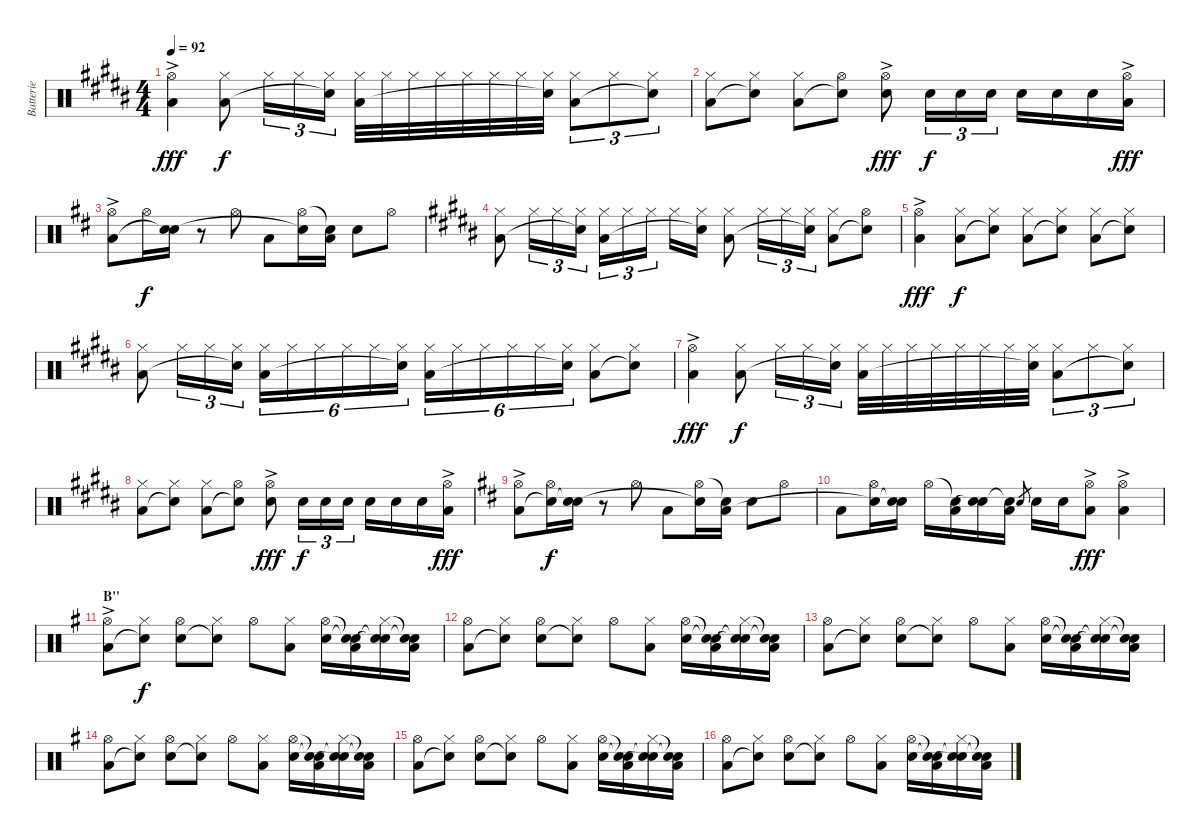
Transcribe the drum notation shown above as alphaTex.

\track ("Batterie" "Batterie") {instrument percussion}
\staff {score}
\articulation defaults
\ts (4 4)
\tempo 92
\clef neutral
\ks b
("Hi-Hat (open)"{ac} "Low Floor Tom (hit)").4{dy fff} ("Hi-Hat (closed)" "Low Floor Tom (hit)").8{dy f} "Hi-Hat (closed)".16{tu (3 2)} "Hi-Hat (closed)".16{tu (3 2)} ("Hi-Hat (closed)" "Snare (hit)"{t}).16{tu (3 2)} ("Hi-Hat (closed)" "Low Floor Tom (hit)").32 "Hi-Hat (closed)".32 "Hi-Hat (closed)".32 "Hi-Hat (closed)".32 "Hi-Hat (closed)".32 "Hi-Hat (closed)".32 "Hi-Hat (closed)".32 ("Hi-Hat (closed)" "Snare (hit)"{t}).32 ("Hi-Hat (closed)" "Low Floor Tom (hit)").8{tu (3 2)} "Hi-Hat (closed)".8{tu (3 2)} ("Hi-Hat (closed)" "Snare (hit)"{t}).8{tu (3 2)} |
("Hi-Hat (closed)" "Low Floor Tom (hit)").8 ("Hi-Hat (closed)" "Snare (hit)"{t}).8 ("Hi-Hat (closed)" "Low Floor Tom (hit)").8 ("Hi-Hat (open)" "Snare (hit)"{t}).8 ("Hi-Hat (open)"{ac} "Electric Snare (hit)").8{dy fff} "Electric Snare (hit)".16{tu (3 2) dy f} "Electric Snare (hit)".16{tu (3 2)} "Electric Snare (hit)".16{tu (3 2)} "Electric Snare (hit)".16 "Electric Snare (hit)".16 "Electric Snare (hit)".16 ("Hi-Hat (open)"{ac} "Low Floor Tom (hit)").16{dy fff} |
\ks d
("Hi-Hat (open)"{ac} "Low Floor Tom (hit)").8 "Hi-Hat (open)".16{dy f} ("Electric Snare (hit)" "Snare (hit)"{t}).16 r.8 "Hi-Hat (open)".8 "Low Floor Tom (hit)".8 ("Hi-Hat (open)" "Snare (hit)"{t}).16 ("Snare (hit)"{t} "Low Floor Tom (hit)").16 "Electric Snare (hit)".8 "Hi-Hat (open)".8 |
\ks b
("Hi-Hat (closed)" "Low Floor Tom (hit)").8 "Hi-Hat (closed)".16{tu (3 2)} "Hi-Hat (closed)".16{tu (3 2)} ("Hi-Hat (closed)" "Snare (hit)"{t}).16{tu (3 2)} ("Hi-Hat (closed)" "Low Floor Tom (hit)").16{tu (3 2)} "Hi-Hat (closed)".16{tu (3 2)} "Hi-Hat (closed)".16{tu (3 2)} "Hi-Hat (closed)".16 ("Hi-Hat (closed)" "Snare (hit)"{t}).16 ("Hi-Hat (closed)" "Low Floor Tom (hit)").8 "Hi-Hat (closed)".16{tu (3 2)} "Hi-Hat (closed)".16{tu (3 2)} ("Hi-Hat (closed)" "Snare (hit)"{t}).16{tu (3 2)} ("Hi-Hat (closed)" "Low Floor Tom (hit)").8 ("Hi-Hat (open)" "Snare (hit)"{t}).8 |
("Hi-Hat (open)"{ac} "Low Floor Tom (hit)").4{dy fff} ("Hi-Hat (closed)" "Low Floor Tom (hit)").8{dy f} ("Hi-Hat (closed)" "Snare (hit)"{t}).8 ("Hi-Hat (closed)" "Low Floor Tom (hit)").8 ("Hi-Hat (closed)" "Snare (hit)"{t}).8 ("Hi-Hat (closed)" "Low Floor Tom (hit)").8 ("Hi-Hat (closed)" "Snare (hit)"{t}).8 |
("Hi-Hat (closed)" "Low Floor Tom (hit)").8 "Hi-Hat (closed)".16{tu (3 2)} "Hi-Hat (closed)".16{tu (3 2)} ("Hi-Hat (closed)" "Snare (hit)"{t}).16{tu (3 2)} ("Hi-Hat (closed)" "Low Floor Tom (hit)").16{tu (6 4)} "Hi-Hat (closed)".16{tu (6 4)} "Hi-Hat (closed)".16{tu (6 4)} "Hi-Hat (closed)".16{tu (6 4)} "Hi-Hat (closed)".16{tu (6 4)} ("Hi-Hat (closed)" "Snare (hit)"{t}).16{tu (6 4)} ("Hi-Hat (closed)" "Low Floor Tom (hit)").16{tu (6 4)} "Hi-Hat (closed)".16{tu (6 4)} "Hi-Hat (closed)".16{tu (6 4)} "Hi-Hat (closed)".16{tu (6 4)} "Hi-Hat (closed)".16{tu (6 4)} ("Hi-Hat (closed)" "Snare (hit)"{t}).16{tu (6 4)} ("Hi-Hat (closed)" "Low Floor Tom (hit)").8 ("Hi-Hat (closed)" "Snare (hit)"{t}).8 |
("Hi-Hat (open)"{ac} "Low Floor Tom (hit)").4{dy fff} ("Hi-Hat (closed)" "Low Floor Tom (hit)").8{dy f} "Hi-Hat (closed)".16{tu (3 2)} "Hi-Hat (closed)".16{tu (3 2)} ("Hi-Hat (closed)" "Snare (hit)"{t}).16{tu (3 2)} ("Hi-Hat (closed)" "Low Floor Tom (hit)").32 "Hi-Hat (closed)".32 "Hi-Hat (closed)".32 "Hi-Hat (closed)".32 "Hi-Hat (closed)".32 "Hi-Hat (closed)".32 "Hi-Hat (closed)".32 ("Hi-Hat (closed)" "Snare (hit)"{t}).32 ("Hi-Hat (closed)" "Low Floor Tom (hit)").8{tu (3 2)} "Hi-Hat (closed)".8{tu (3 2)} ("Hi-Hat (closed)" "Snare (hit)"{t}).8{tu (3 2)} |
("Hi-Hat (closed)" "Low Floor Tom (hit)").8 ("Hi-Hat (closed)" "Snare (hit)"{t}).8 ("Hi-Hat (closed)" "Low Floor Tom (hit)").8 ("Hi-Hat (open)" "Snare (hit)"{t}).8 ("Hi-Hat (open)"{ac} "Electric Snare (hit)").8{dy fff} "Electric Snare (hit)".16{tu (3 2) dy f} "Electric Snare (hit)".16{tu (3 2)} "Electric Snare (hit)".16{tu (3 2)} "Electric Snare (hit)".16 "Electric Snare (hit)".16 "Electric Snare (hit)".16 ("Hi-Hat (open)"{ac} "Low Floor Tom (hit)").16{dy fff} |
\ks d
("Hi-Hat (open)"{ac} "Low Floor Tom (hit)").8 ("Hi-Hat (open)" "Snare (hit)"{t}).16{dy f} ("Electric Snare (hit)" "Snare (hit)"{t}).16 r.8 "Hi-Hat (open)".8 "Low Floor Tom (hit)".8 ("Hi-Hat (open)" "Snare (hit)"{t}).16 ("Snare (hit)"{t} "Low Floor Tom (hit)").16 "Electric Snare (hit)".8 "Hi-Hat (open)".8 |
"Low Floor Tom (hit)".8 ("Hi-Hat (open)" "Snare (hit)"{t}).16 ("Electric Snare (hit)" "Snare (hit)"{t}).16 "Hi-Hat (open)".16 ("Snare (hit)"{t} "Low Floor Tom (hit)").16 ("Electric Snare (hit)" "Snare (hit)"{t}).16 ("Snare (hit)"{t} "Low Floor Tom (hit)").16 "Electric Snare (hit)".8{gr} "Electric Snare (hit)".16 "Electric Snare (hit)".16 ("Hi-Hat (open)"{ac} "Low Floor Tom (hit)").8{dy fff} ("Hi-Hat (open)"{ac} "Low Floor Tom (hit)").4 |
\section ("" "B''")
\ks g
("Hi-Hat (open)"{ac} "Low Floor Tom (hit)").8 ("Hi-Hat (closed)" "Snare (hit)"{t}).8{dy f} ("Hi-Hat (open)" "Electric Snare (hit)").8 ("Hi-Hat (closed)" "Snare (hit)"{t}).8 "Hi-Hat (open)".8 ("Hi-Hat (closed)" "Low Floor Tom (hit)").8 ("Hi-Hat (open)" "Electric Snare (hit)").16 ("Snare (hit)"{t} "Snare (hit)"{t} "Low Floor Tom (hit)").16 ("Hi-Hat (closed)" "Snare (hit)"{t} "Snare (hit)"{t}).16 ("Snare (hit)"{t} "Snare (hit)"{t} "Low Floor Tom (hit)").16 |
("Hi-Hat (open)" "Low Floor Tom (hit)").8 ("Hi-Hat (closed)" "Snare (hit)"{t}).8 ("Hi-Hat (open)" "Electric Snare (hit)").8 ("Hi-Hat (closed)" "Snare (hit)"{t}).8 "Hi-Hat (open)".8 ("Hi-Hat (closed)" "Low Floor Tom (hit)").8 ("Hi-Hat (open)" "Electric Snare (hit)").16 ("Snare (hit)"{t} "Snare (hit)"{t} "Low Floor Tom (hit)").16 ("Hi-Hat (closed)" "Snare (hit)"{t} "Snare (hit)"{t}).16 ("Snare (hit)"{t} "Snare (hit)"{t} "Low Floor Tom (hit)").16 |
("Hi-Hat (open)" "Low Floor Tom (hit)").8 ("Hi-Hat (closed)" "Snare (hit)"{t}).8 ("Hi-Hat (open)" "Electric Snare (hit)").8 ("Hi-Hat (closed)" "Snare (hit)"{t}).8 "Hi-Hat (open)".8 ("Hi-Hat (closed)" "Low Floor Tom (hit)").8 ("Hi-Hat (open)" "Electric Snare (hit)").16 ("Snare (hit)"{t} "Snare (hit)"{t} "Low Floor Tom (hit)").16 ("Hi-Hat (closed)" "Snare (hit)"{t} "Snare (hit)"{t}).16 ("Snare (hit)"{t} "Snare (hit)"{t} "Low Floor Tom (hit)").16 |
("Hi-Hat (open)" "Low Floor Tom (hit)").8 ("Hi-Hat (closed)" "Snare (hit)"{t}).8 ("Hi-Hat (open)" "Electric Snare (hit)").8 ("Hi-Hat (closed)" "Snare (hit)"{t}).8 "Hi-Hat (open)".8 ("Hi-Hat (closed)" "Low Floor Tom (hit)").8 ("Hi-Hat (open)" "Electric Snare (hit)").16 ("Snare (hit)"{t} "Snare (hit)"{t} "Low Floor Tom (hit)").16 ("Hi-Hat (closed)" "Snare (hit)"{t} "Snare (hit)"{t}).16 ("Snare (hit)"{t} "Snare (hit)"{t} "Low Floor Tom (hit)").16 |
("Hi-Hat (open)" "Low Floor Tom (hit)").8 ("Hi-Hat (closed)" "Snare (hit)"{t}).8 ("Hi-Hat (open)" "Electric Snare (hit)").8 ("Hi-Hat (closed)" "Snare (hit)"{t}).8 "Hi-Hat (open)".8 ("Hi-Hat (closed)" "Low Floor Tom (hit)").8 ("Hi-Hat (open)" "Electric Snare (hit)").16 ("Snare (hit)"{t} "Snare (hit)"{t} "Low Floor Tom (hit)").16 ("Hi-Hat (closed)" "Snare (hit)"{t} "Snare (hit)"{t}).16 ("Snare (hit)"{t} "Snare (hit)"{t} "Low Floor Tom (hit)").16 |
("Hi-Hat (open)" "Low Floor Tom (hit)").8 ("Hi-Hat (closed)" "Snare (hit)"{t}).8 ("Hi-Hat (open)" "Electric Snare (hit)").8 ("Hi-Hat (closed)" "Snare (hit)"{t}).8 "Hi-Hat (open)".8 ("Hi-Hat (closed)" "Low Floor Tom (hit)").8 ("Hi-Hat (open)" "Electric Snare (hit)").16 ("Snare (hit)"{t} "Snare (hit)"{t} "Low Floor Tom (hit)").16 ("Hi-Hat (closed)" "Snare (hit)"{t} "Snare (hit)"{t}).16 ("Snare (hit)"{t} "Snare (hit)"{t} "Low Floor Tom (hit)").16
